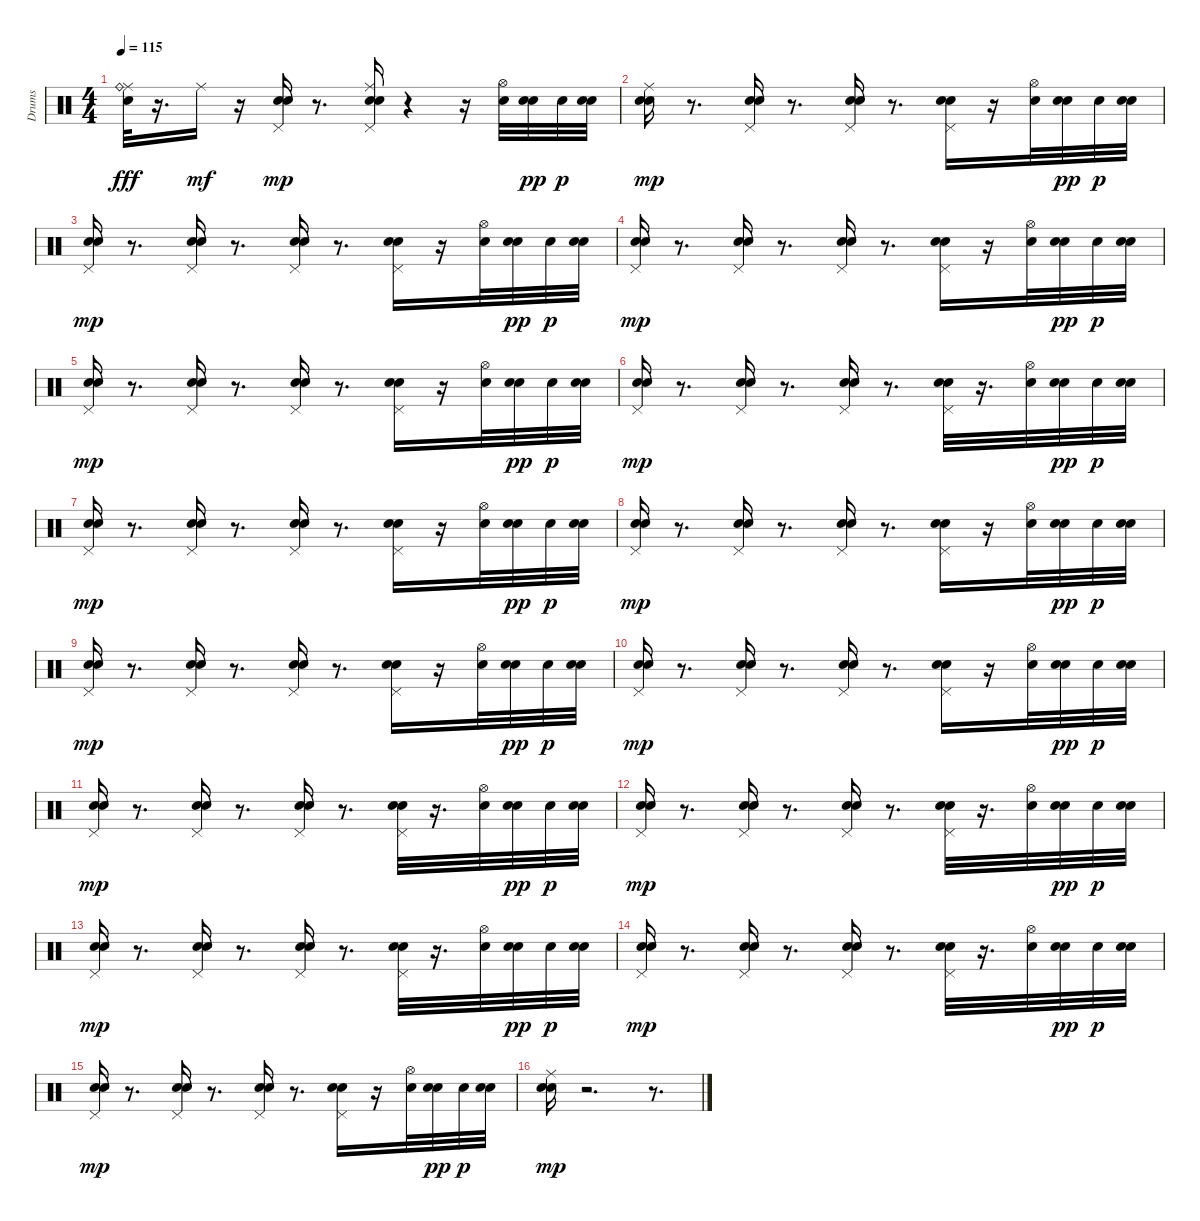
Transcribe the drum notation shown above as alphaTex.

\track ("Drums" "Drums") {instrument percussion}
\staff {score}
\articulation defaults
\ts (4 4)
\tempo 115
\clef neutral
\ks c
("Snare (hit) 2" "Ride (middle)" "Ride (bell)").32{dy fff} r.16{d} "Ride (middle)".16{dy mf} r.16 ("Snare (hit) 2" "Snare (hit) 2" "Pedal Hi-Hat (hit)").16{dy mp} r.8{d} ("Snare (hit) 2" "Snare (hit) 2" "Pedal Hi-Hat (hit)" "Ride (middle)").16 r.4 r.16 ("Snare (hit) 2" "Hi-Hat (open)").32 ("Snare (hit) 2" "Snare (hit) 2").32{dy pp} "Snare (hit) 2".32{dy p} ("Snare (hit) 2" "Snare (hit) 2").32 |
("Snare (hit) 2" "Snare (hit) 2" "Ride (middle)").16{dy mp} r.8{d} ("Snare (hit) 2" "Snare (hit) 2" "Pedal Hi-Hat (hit)").16 r.8{d} ("Snare (hit) 2" "Snare (hit) 2" "Pedal Hi-Hat (hit)").16 r.8{d} ("Snare (hit) 2" "Snare (hit) 2" "Pedal Hi-Hat (hit)").16 r.16 ("Snare (hit) 2" "Hi-Hat (open)").32 ("Snare (hit) 2" "Snare (hit) 2").32{dy pp} "Snare (hit) 2".32{dy p} ("Snare (hit) 2" "Snare (hit) 2").32 |
("Snare (hit) 2" "Snare (hit) 2" "Pedal Hi-Hat (hit)").16{dy mp} r.8{d} ("Snare (hit) 2" "Snare (hit) 2" "Pedal Hi-Hat (hit)").16 r.8{d} ("Snare (hit) 2" "Snare (hit) 2" "Pedal Hi-Hat (hit)").16 r.8{d} ("Snare (hit) 2" "Snare (hit) 2" "Pedal Hi-Hat (hit)").16 r.16 ("Snare (hit) 2" "Hi-Hat (open)").32 ("Snare (hit) 2" "Snare (hit) 2").32{dy pp} "Snare (hit) 2".32{dy p} ("Snare (hit) 2" "Snare (hit) 2").32 |
("Snare (hit) 2" "Snare (hit) 2" "Pedal Hi-Hat (hit)").16{dy mp} r.8{d} ("Snare (hit) 2" "Snare (hit) 2" "Pedal Hi-Hat (hit)").16 r.8{d} ("Snare (hit) 2" "Snare (hit) 2" "Pedal Hi-Hat (hit)").16 r.8{d} ("Snare (hit) 2" "Snare (hit) 2" "Pedal Hi-Hat (hit)").16 r.16 ("Snare (hit) 2" "Hi-Hat (open)").32 ("Snare (hit) 2" "Snare (hit) 2").32{dy pp} "Snare (hit) 2".32{dy p} ("Snare (hit) 2" "Snare (hit) 2").32 |
("Snare (hit) 2" "Snare (hit) 2" "Pedal Hi-Hat (hit)").16{dy mp} r.8{d} ("Snare (hit) 2" "Snare (hit) 2" "Pedal Hi-Hat (hit)").16 r.8{d} ("Snare (hit) 2" "Snare (hit) 2" "Pedal Hi-Hat (hit)").16 r.8{d} ("Snare (hit) 2" "Snare (hit) 2" "Pedal Hi-Hat (hit)").16 r.16 ("Snare (hit) 2" "Hi-Hat (open)").32 ("Snare (hit) 2" "Snare (hit) 2").32{dy pp} "Snare (hit) 2".32{dy p} ("Snare (hit) 2" "Snare (hit) 2").32 |
("Snare (hit) 2" "Snare (hit) 2" "Pedal Hi-Hat (hit)").16{dy mp} r.8{d} ("Snare (hit) 2" "Snare (hit) 2" "Pedal Hi-Hat (hit)").16 r.8{d} ("Snare (hit) 2" "Snare (hit) 2" "Pedal Hi-Hat (hit)").16 r.8{d} ("Snare (hit) 2" "Snare (hit) 2" "Pedal Hi-Hat (hit)").32 r.16{d} ("Snare (hit) 2" "Hi-Hat (open)").32 ("Snare (hit) 2" "Snare (hit) 2").32{dy pp} "Snare (hit) 2".32{dy p} ("Snare (hit) 2" "Snare (hit) 2").32 |
("Snare (hit) 2" "Snare (hit) 2" "Pedal Hi-Hat (hit)").16{dy mp} r.8{d} ("Snare (hit) 2" "Snare (hit) 2" "Pedal Hi-Hat (hit)").16 r.8{d} ("Snare (hit) 2" "Snare (hit) 2" "Pedal Hi-Hat (hit)").16 r.8{d} ("Snare (hit) 2" "Snare (hit) 2" "Pedal Hi-Hat (hit)").16 r.16 ("Snare (hit) 2" "Hi-Hat (open)").32 ("Snare (hit) 2" "Snare (hit) 2").32{dy pp} "Snare (hit) 2".32{dy p} ("Snare (hit) 2" "Snare (hit) 2").32 |
("Snare (hit) 2" "Snare (hit) 2" "Pedal Hi-Hat (hit)").16{dy mp} r.8{d} ("Snare (hit) 2" "Snare (hit) 2" "Pedal Hi-Hat (hit)").16 r.8{d} ("Snare (hit) 2" "Snare (hit) 2" "Pedal Hi-Hat (hit)").16 r.8{d} ("Snare (hit) 2" "Snare (hit) 2" "Pedal Hi-Hat (hit)").16 r.16 ("Snare (hit) 2" "Hi-Hat (open)").32 ("Snare (hit) 2" "Snare (hit) 2").32{dy pp} "Snare (hit) 2".32{dy p} ("Snare (hit) 2" "Snare (hit) 2").32 |
("Snare (hit) 2" "Snare (hit) 2" "Pedal Hi-Hat (hit)").16{dy mp} r.8{d} ("Snare (hit) 2" "Snare (hit) 2" "Pedal Hi-Hat (hit)").16 r.8{d} ("Snare (hit) 2" "Snare (hit) 2" "Pedal Hi-Hat (hit)").16 r.8{d} ("Snare (hit) 2" "Snare (hit) 2" "Pedal Hi-Hat (hit)").16 r.16 ("Snare (hit) 2" "Hi-Hat (open)").32 ("Snare (hit) 2" "Snare (hit) 2").32{dy pp} "Snare (hit) 2".32{dy p} ("Snare (hit) 2" "Snare (hit) 2").32 |
("Snare (hit) 2" "Snare (hit) 2" "Pedal Hi-Hat (hit)").16{dy mp} r.8{d} ("Snare (hit) 2" "Snare (hit) 2" "Pedal Hi-Hat (hit)").16 r.8{d} ("Snare (hit) 2" "Snare (hit) 2" "Pedal Hi-Hat (hit)").16 r.8{d} ("Snare (hit) 2" "Snare (hit) 2" "Pedal Hi-Hat (hit)").16 r.16 ("Snare (hit) 2" "Hi-Hat (open)").32 ("Snare (hit) 2" "Snare (hit) 2").32{dy pp} "Snare (hit) 2".32{dy p} ("Snare (hit) 2" "Snare (hit) 2").32 |
("Snare (hit) 2" "Snare (hit) 2" "Pedal Hi-Hat (hit)").16{dy mp} r.8{d} ("Snare (hit) 2" "Snare (hit) 2" "Pedal Hi-Hat (hit)").16 r.8{d} ("Snare (hit) 2" "Snare (hit) 2" "Pedal Hi-Hat (hit)").16 r.8{d} ("Snare (hit) 2" "Snare (hit) 2" "Pedal Hi-Hat (hit)").32 r.16{d} ("Snare (hit) 2" "Hi-Hat (open)").32 ("Snare (hit) 2" "Snare (hit) 2").32{dy pp} "Snare (hit) 2".32{dy p} ("Snare (hit) 2" "Snare (hit) 2").32 |
("Snare (hit) 2" "Snare (hit) 2" "Pedal Hi-Hat (hit)").16{dy mp} r.8{d} ("Snare (hit) 2" "Snare (hit) 2" "Pedal Hi-Hat (hit)").16 r.8{d} ("Snare (hit) 2" "Snare (hit) 2" "Pedal Hi-Hat (hit)").16 r.8{d} ("Snare (hit) 2" "Snare (hit) 2" "Pedal Hi-Hat (hit)").32 r.16{d} ("Snare (hit) 2" "Hi-Hat (open)").32 ("Snare (hit) 2" "Snare (hit) 2").32{dy pp} "Snare (hit) 2".32{dy p} ("Snare (hit) 2" "Snare (hit) 2").32 |
("Snare (hit) 2" "Snare (hit) 2" "Pedal Hi-Hat (hit)").16{dy mp} r.8{d} ("Snare (hit) 2" "Snare (hit) 2" "Pedal Hi-Hat (hit)").16 r.8{d} ("Snare (hit) 2" "Snare (hit) 2" "Pedal Hi-Hat (hit)").16 r.8{d} ("Snare (hit) 2" "Snare (hit) 2" "Pedal Hi-Hat (hit)").32 r.16{d} ("Snare (hit) 2" "Hi-Hat (open)").32 ("Snare (hit) 2" "Snare (hit) 2").32{dy pp} "Snare (hit) 2".32{dy p} ("Snare (hit) 2" "Snare (hit) 2").32 |
("Snare (hit) 2" "Snare (hit) 2" "Pedal Hi-Hat (hit)").16{dy mp} r.8{d} ("Snare (hit) 2" "Snare (hit) 2" "Pedal Hi-Hat (hit)").16 r.8{d} ("Snare (hit) 2" "Snare (hit) 2" "Pedal Hi-Hat (hit)").16 r.8{d} ("Snare (hit) 2" "Snare (hit) 2" "Pedal Hi-Hat (hit)").32 r.16{d} ("Snare (hit) 2" "Hi-Hat (open)").32 ("Snare (hit) 2" "Snare (hit) 2").32{dy pp} "Snare (hit) 2".32{dy p} ("Snare (hit) 2" "Snare (hit) 2").32 |
("Snare (hit) 2" "Snare (hit) 2" "Pedal Hi-Hat (hit)").16{dy mp} r.8{d} ("Snare (hit) 2" "Snare (hit) 2" "Pedal Hi-Hat (hit)").16 r.8{d} ("Snare (hit) 2" "Snare (hit) 2" "Pedal Hi-Hat (hit)").16 r.8{d} ("Snare (hit) 2" "Snare (hit) 2" "Pedal Hi-Hat (hit)").16 r.16 ("Snare (hit) 2" "Hi-Hat (open)").32 ("Snare (hit) 2" "Snare (hit) 2").32{dy pp} "Snare (hit) 2".32{dy p} ("Snare (hit) 2" "Snare (hit) 2").32 |
("Snare (hit) 2" "Snare (hit) 2" "Ride (middle)").16{dy mp} r.2{d} r.8{d}
